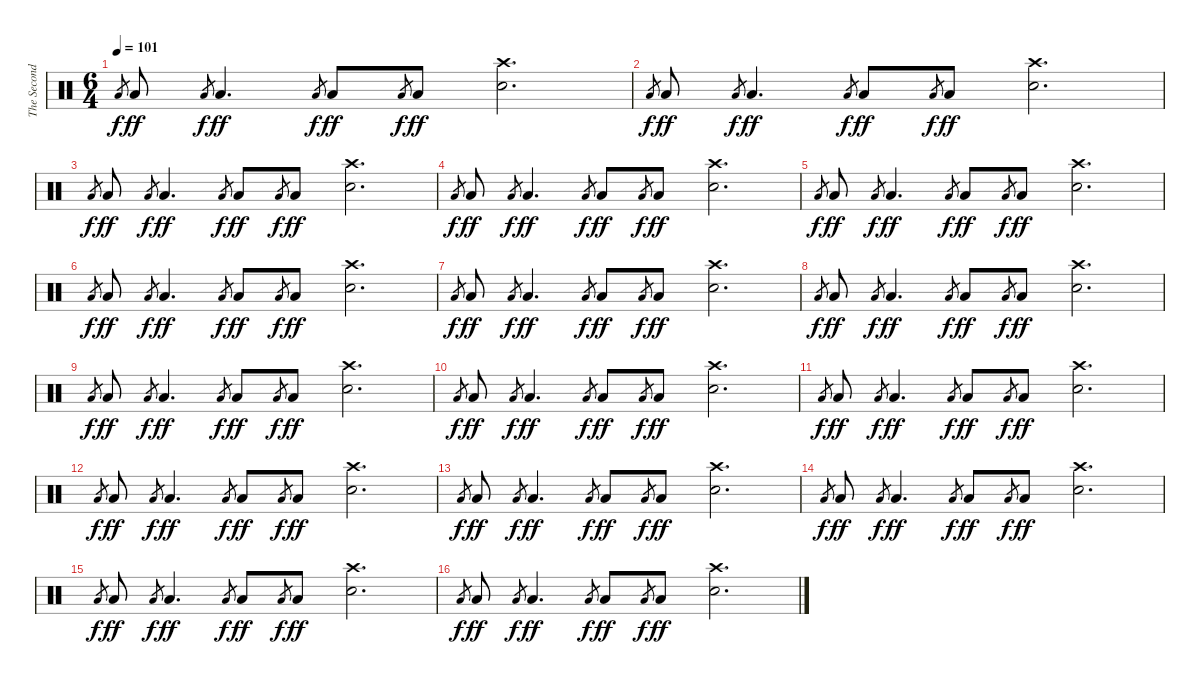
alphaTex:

\track ("The Second Drummer" "The Second") {instrument percussion}
\staff {score}
\articulation defaults
\ts (6 4)
\tempo 101
\clef neutral
\ks c "Low Floor Tom (hit)".8{gr dy f} "Low Floor Tom (hit)".8{dy ff} "Low Floor Tom (hit)".8{gr dy f} "Low Floor Tom (hit)".4{d dy ff} "Low Floor Tom (hit)".8{gr dy f} "Low Floor Tom (hit)".8{dy ff} "Low Floor Tom (hit)".8{gr dy f} "Low Floor Tom (hit)".8{dy ff}
("Crash high (hit)" "Electric Snare (hit)").2{d} |
"Low Floor Tom (hit)".8{gr dy f} "Low Floor Tom (hit)".8{dy ff} "Low Floor Tom (hit)".8{gr dy f} "Low Floor Tom (hit)".4{d dy ff} "Low Floor Tom (hit)".8{gr dy f} "Low Floor Tom (hit)".8{dy ff} "Low Floor Tom (hit)".8{gr dy f} "Low Floor Tom (hit)".8{dy ff} ("Crash high (hit)" "Electric Snare (hit)").2{d} |
"Low Floor Tom (hit)".8{gr dy f} "Low Floor Tom (hit)".8{dy ff} "Low Floor Tom (hit)".8{gr dy f} "Low Floor Tom (hit)".4{d dy ff} "Low Floor Tom (hit)".8{gr dy f} "Low Floor Tom (hit)".8{dy ff} "Low Floor Tom (hit)".8{gr dy f} "Low Floor Tom (hit)".8{dy ff} ("Crash high (hit)" "Electric Snare (hit)").2{d} |
"Low Floor Tom (hit)".8{gr dy f} "Low Floor Tom (hit)".8{dy ff} "Low Floor Tom (hit)".8{gr dy f} "Low Floor Tom (hit)".4{d dy ff} "Low Floor Tom (hit)".8{gr dy f} "Low Floor Tom (hit)".8{dy ff} "Low Floor Tom (hit)".8{gr dy f} "Low Floor Tom (hit)".8{dy ff} ("Crash high (hit)" "Electric Snare (hit)").2{d} |
"Low Floor Tom (hit)".8{gr dy f} "Low Floor Tom (hit)".8{dy ff} "Low Floor Tom (hit)".8{gr dy f} "Low Floor Tom (hit)".4{d dy ff} "Low Floor Tom (hit)".8{gr dy f} "Low Floor Tom (hit)".8{dy ff} "Low Floor Tom (hit)".8{gr dy f} "Low Floor Tom (hit)".8{dy ff} ("Crash high (hit)" "Electric Snare (hit)").2{d} |
"Low Floor Tom (hit)".8{gr dy f} "Low Floor Tom (hit)".8{dy ff} "Low Floor Tom (hit)".8{gr dy f} "Low Floor Tom (hit)".4{d dy ff} "Low Floor Tom (hit)".8{gr dy f} "Low Floor Tom (hit)".8{dy ff} "Low Floor Tom (hit)".8{gr dy f} "Low Floor Tom (hit)".8{dy ff} ("Crash high (hit)" "Electric Snare (hit)").2{d} |
"Low Floor Tom (hit)".8{gr dy f} "Low Floor Tom (hit)".8{dy ff} "Low Floor Tom (hit)".8{gr dy f} "Low Floor Tom (hit)".4{d dy ff} "Low Floor Tom (hit)".8{gr dy f} "Low Floor Tom (hit)".8{dy ff} "Low Floor Tom (hit)".8{gr dy f} "Low Floor Tom (hit)".8{dy ff} ("Crash high (hit)" "Electric Snare (hit)").2{d} |
"Low Floor Tom (hit)".8{gr dy f} "Low Floor Tom (hit)".8{dy ff} "Low Floor Tom (hit)".8{gr dy f} "Low Floor Tom (hit)".4{d dy ff} "Low Floor Tom (hit)".8{gr dy f} "Low Floor Tom (hit)".8{dy ff} "Low Floor Tom (hit)".8{gr dy f} "Low Floor Tom (hit)".8{dy ff} ("Crash high (hit)" "Electric Snare (hit)").2{d} |
"Low Floor Tom (hit)".8{gr dy f} "Low Floor Tom (hit)".8{dy ff} "Low Floor Tom (hit)".8{gr dy f} "Low Floor Tom (hit)".4{d dy ff} "Low Floor Tom (hit)".8{gr dy f} "Low Floor Tom (hit)".8{dy ff} "Low Floor Tom (hit)".8{gr dy f} "Low Floor Tom (hit)".8{dy ff} ("Crash high (hit)" "Electric Snare (hit)").2{d} |
"Low Floor Tom (hit)".8{gr dy f} "Low Floor Tom (hit)".8{dy ff} "Low Floor Tom (hit)".8{gr dy f} "Low Floor Tom (hit)".4{d dy ff} "Low Floor Tom (hit)".8{gr dy f} "Low Floor Tom (hit)".8{dy ff} "Low Floor Tom (hit)".8{gr dy f} "Low Floor Tom (hit)".8{dy ff} ("Crash high (hit)" "Electric Snare (hit)").2{d} |
"Low Floor Tom (hit)".8{gr dy f} "Low Floor Tom (hit)".8{dy ff} "Low Floor Tom (hit)".8{gr dy f} "Low Floor Tom (hit)".4{d dy ff} "Low Floor Tom (hit)".8{gr dy f} "Low Floor Tom (hit)".8{dy ff} "Low Floor Tom (hit)".8{gr dy f} "Low Floor Tom (hit)".8{dy ff} ("Crash high (hit)" "Electric Snare (hit)").2{d} |
"Low Floor Tom (hit)".8{gr dy f} "Low Floor Tom (hit)".8{dy ff} "Low Floor Tom (hit)".8{gr dy f} "Low Floor Tom (hit)".4{d dy ff} "Low Floor Tom (hit)".8{gr dy f} "Low Floor Tom (hit)".8{dy ff} "Low Floor Tom (hit)".8{gr dy f} "Low Floor Tom (hit)".8{dy ff} ("Crash high (hit)" "Electric Snare (hit)").2{d} |
"Low Floor Tom (hit)".8{gr dy f} "Low Floor Tom (hit)".8{dy ff} "Low Floor Tom (hit)".8{gr dy f} "Low Floor Tom (hit)".4{d dy ff} "Low Floor Tom (hit)".8{gr dy f} "Low Floor Tom (hit)".8{dy ff} "Low Floor Tom (hit)".8{gr dy f} "Low Floor Tom (hit)".8{dy ff} ("Crash high (hit)" "Electric Snare (hit)").2{d} |
"Low Floor Tom (hit)".8{gr dy f} "Low Floor Tom (hit)".8{dy ff} "Low Floor Tom (hit)".8{gr dy f} "Low Floor Tom (hit)".4{d dy ff} "Low Floor Tom (hit)".8{gr dy f} "Low Floor Tom (hit)".8{dy ff} "Low Floor Tom (hit)".8{gr dy f} "Low Floor Tom (hit)".8{dy ff} ("Crash high (hit)" "Electric Snare (hit)").2{d} |
"Low Floor Tom (hit)".8{gr dy f} "Low Floor Tom (hit)".8{dy ff} "Low Floor Tom (hit)".8{gr dy f} "Low Floor Tom (hit)".4{d dy ff} "Low Floor Tom (hit)".8{gr dy f} "Low Floor Tom (hit)".8{dy ff} "Low Floor Tom (hit)".8{gr dy f} "Low Floor Tom (hit)".8{dy ff} ("Crash high (hit)" "Electric Snare (hit)").2{d} |
"Low Floor Tom (hit)".8{gr dy f} "Low Floor Tom (hit)".8{dy ff} "Low Floor Tom (hit)".8{gr dy f} "Low Floor Tom (hit)".4{d dy ff} "Low Floor Tom (hit)".8{gr dy f} "Low Floor Tom (hit)".8{dy ff} "Low Floor Tom (hit)".8{gr dy f} "Low Floor Tom (hit)".8{dy ff} ("Crash high (hit)" "Electric Snare (hit)").2{d}
